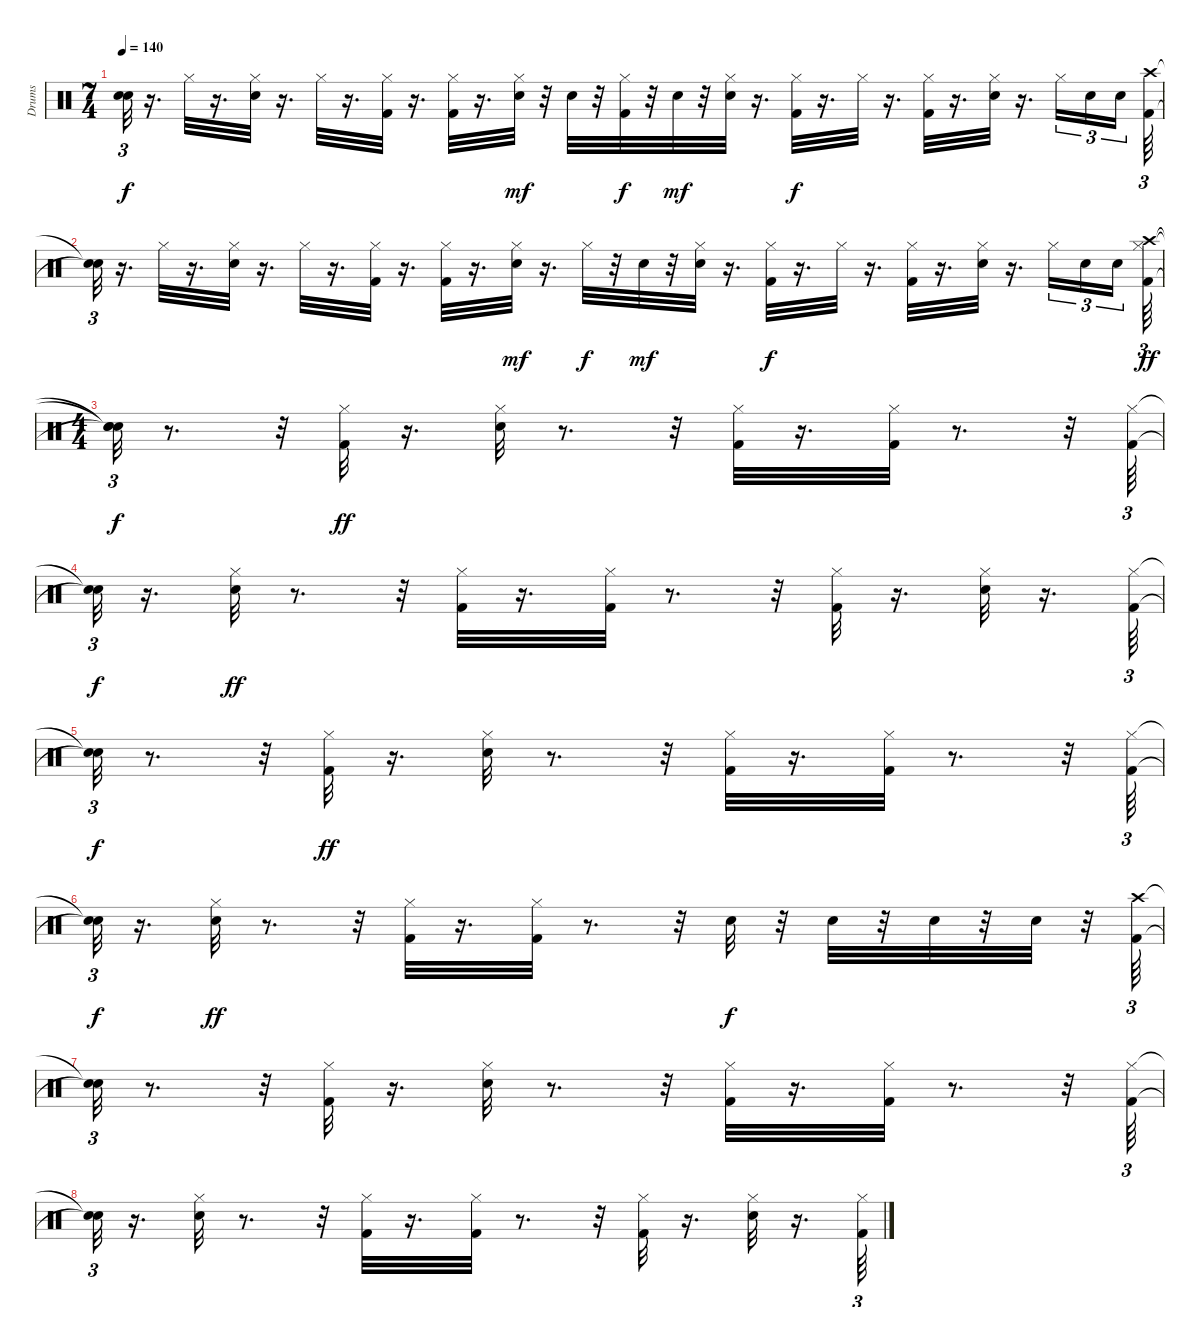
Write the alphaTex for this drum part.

\track ("Drums" "Drums") {instrument percussion}
\staff {score}
\articulation defaults
\ts (7 4)
\tempo 140
\clef neutral
\ks c
("Snare (hit)"{t} "Snare (hit)"{t}).32{tu (3 2) dy f} r.16{d} "Hi-Hat (closed)".32 r.16{d} ("Hi-Hat (closed)" "Snare (hit) 2").32 r.16{d} "Hi-Hat (closed)".32 r.16{d} ("Kick (hit) 2" "Hi-Hat (closed)").32 r.16{d} ("Kick (hit) 2" "Hi-Hat (closed)").32 r.16{d} ("Snare (hit) 2" "Hi-Hat (closed)").32{dy mf} r.32 "Snare (hit) 2".32 r.32 ("Kick (hit) 2" "Hi-Hat (closed)").32{dy f} r.32 "Snare (hit) 2".32{dy mf} r.32 ("Snare (hit) 2" "Hi-Hat (closed)").32 r.16{d} ("Hi-Hat (closed)" "Kick (hit) 2").32{dy f} r.16{d} "Hi-Hat (closed)".32 r.16{d} ("Kick (hit) 2" "Hi-Hat (closed)").32 r.16{d} ("Snare (hit) 2" "Hi-Hat (closed)").32 r.16{d} "Hi-Hat (closed)".16{tu (3 2)} "Snare (hit) 2".16{tu (3 2)} "Snare (hit) 2".16{tu (3 2) beam splitsecondary} ("Kick (hit) 2" "Crash high (hit)").64{tu (3 2)} |
("Snare (hit)"{t} "Snare (hit)"{t}).32{tu (3 2)} r.16{d} "Hi-Hat (closed)".32 r.16{d} ("Hi-Hat (closed)" "Snare (hit) 2").32 r.16{d} "Hi-Hat (closed)".32 r.16{d} ("Kick (hit) 2" "Hi-Hat (closed)").32 r.16{d} ("Kick (hit) 2" "Hi-Hat (closed)").32 r.16{d} ("Snare (hit) 2" "Hi-Hat (closed)").32{dy mf} r.16{d} "Hi-Hat (closed)".32{dy f} r.32 "Snare (hit) 2".32{dy mf} r.32 ("Snare (hit) 2" "Hi-Hat (closed)").32 r.16{d} ("Hi-Hat (closed)" "Kick (hit) 2").32{dy f} r.16{d} "Hi-Hat (closed)".32 r.16{d} ("Kick (hit) 2" "Hi-Hat (closed)").32 r.16{d} ("Snare (hit) 2" "Hi-Hat (closed)").32 r.16{d} "Hi-Hat (closed)".16{tu (3 2)} "Snare (hit) 2".16{tu (3 2)} "Snare (hit) 2".16{tu (3 2) beam splitsecondary} ("Hi-Hat (closed)" "Crash high (hit)" "Kick (hit) 2").64{tu (3 2) dy ff} |
\ts (4 4)
("Snare (hit)"{t} "Snare (hit)"{t} "Snare (hit)"{t}).32{tu (3 2) dy f} r.8{d} r.32 ("Hi-Hat (closed)" "Kick (hit) 2").32{dy ff} r.16{d} ("Hi-Hat (closed)" "Snare (hit) 2").32 r.8{d} r.32 ("Hi-Hat (closed)" "Kick (hit) 2").32 r.16{d} ("Hi-Hat (closed)" "Kick (hit) 2").32 r.8{d} r.32 ("Hi-Hat (closed)" "Kick (hit) 2").64{tu (3 2)} |
("Snare (hit)"{t} "Snare (hit)"{t}).32{tu (3 2) dy f} r.16{d} ("Hi-Hat (closed)" "Snare (hit) 2").32{dy ff} r.8{d} r.32 ("Hi-Hat (closed)" "Kick (hit) 2").32 r.16{d} ("Hi-Hat (closed)" "Kick (hit) 2").32 r.8{d} r.32 ("Hi-Hat (closed)" "Kick (hit) 2").32 r.16{d} ("Hi-Hat (closed)" "Snare (hit) 2").32 r.16{d} ("Hi-Hat (closed)" "Kick (hit) 2").64{tu (3 2)} |
("Snare (hit)"{t} "Snare (hit)"{t}).32{tu (3 2) dy f} r.8{d} r.32 ("Hi-Hat (closed)" "Kick (hit) 2").32{dy ff} r.16{d} ("Hi-Hat (closed)" "Snare (hit) 2").32 r.8{d} r.32 ("Hi-Hat (closed)" "Kick (hit) 2").32 r.16{d} ("Hi-Hat (closed)" "Kick (hit) 2").32 r.8{d} r.32 ("Hi-Hat (closed)" "Kick (hit) 2").64{tu (3 2)} |
("Snare (hit)"{t} "Snare (hit)"{t}).32{tu (3 2) dy f} r.16{d} ("Hi-Hat (closed)" "Snare (hit) 2").32{dy ff} r.8{d} r.32 ("Hi-Hat (closed)" "Kick (hit) 2").32 r.16{d} ("Hi-Hat (closed)" "Kick (hit) 2").32 r.8{d} r.32 "Snare (hit) 2".32{dy f} r.32 "Snare (hit) 2".32 r.32 "Snare (hit) 2".32 r.32 "Snare (hit) 2".32 r.32 ("Crash high (hit)" "Kick (hit) 2").64{tu (3 2)} |
("Snare (hit)"{t} "Snare (hit)"{t}).32{tu (3 2)} r.8{d} r.32 ("Hi-Hat (closed)" "Kick (hit) 2").32 r.16{d} ("Hi-Hat (closed)" "Snare (hit) 2").32 r.8{d} r.32 ("Hi-Hat (closed)" "Kick (hit) 2").32 r.16{d} ("Hi-Hat (closed)" "Kick (hit) 2").32 r.8{d} r.32 ("Hi-Hat (closed)" "Kick (hit) 2").64{tu (3 2)} |
("Snare (hit)"{t} "Snare (hit)"{t}).32{tu (3 2)} r.16{d} ("Hi-Hat (closed)" "Snare (hit) 2").32 r.8{d} r.32 ("Hi-Hat (closed)" "Kick (hit) 2").32 r.16{d} ("Hi-Hat (closed)" "Kick (hit) 2").32 r.8{d} r.32 ("Hi-Hat (closed)" "Kick (hit) 2").32 r.16{d} ("Hi-Hat (closed)" "Snare (hit) 2").32 r.16{d} ("Hi-Hat (closed)" "Kick (hit) 2").64{tu (3 2)}
